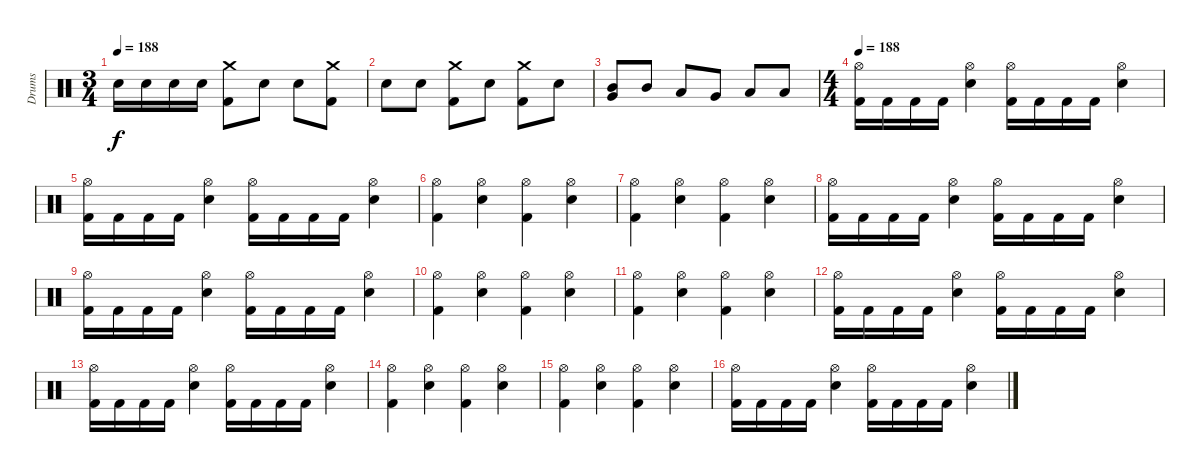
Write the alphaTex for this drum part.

\track ("Drums" "Drums") {instrument percussion}
\staff {score}
\articulation defaults
\ts (3 4)
\tempo 188
\clef neutral
\ks c "Electric Snare (hit)".16{dy f} "Electric Snare (hit)".16 "Electric Snare (hit)".16 "Electric Snare (hit)".16
("Crash medium (hit)" "Kick (hit) 2").8 "Electric Snare (hit)".8 "Electric Snare (hit)".8 ("Crash medium (hit)" "Kick (hit) 2").8 |
"Electric Snare (hit)".8 "Electric Snare (hit)".8 ("Crash medium (hit)" "Kick (hit) 2").8 "Electric Snare (hit)".8 ("Crash medium (hit)" "Kick (hit) 2").8 "Electric Snare (hit)".8 |
("Very Low Tom (hit)" "Mid Tom (hit)").8 "Mid Tom (hit)".8 "Low Tom (hit)".8 "Very Low Tom (hit)".8 "Low Floor Tom (hit)".8 "Low Floor Tom (hit)".8 |
\ts (4 4)
\tempo 188
("Hi-Hat (open)" "Kick (hit) 2").16 "Kick (hit) 2".16 "Kick (hit) 2".16 "Kick (hit) 2".16 ("Electric Snare (hit)" "Hi-Hat (open)").4 ("Hi-Hat (open)" "Kick (hit) 2").16 "Kick (hit) 2".16 "Kick (hit) 2".16 "Kick (hit) 2".16 ("Electric Snare (hit)" "Hi-Hat (open)").4 |
("Hi-Hat (open)" "Kick (hit) 2").16 "Kick (hit) 2".16 "Kick (hit) 2".16 "Kick (hit) 2".16 ("Electric Snare (hit)" "Hi-Hat (open)").4 ("Hi-Hat (open)" "Kick (hit) 2").16 "Kick (hit) 2".16 "Kick (hit) 2".16 "Kick (hit) 2".16 ("Electric Snare (hit)" "Hi-Hat (open)").4 |
("Hi-Hat (open)" "Kick (hit) 2").4 ("Electric Snare (hit)" "Hi-Hat (open)").4 ("Hi-Hat (open)" "Kick (hit) 2").4 ("Electric Snare (hit)" "Hi-Hat (open)").4 |
("Hi-Hat (open)" "Kick (hit) 2").4 ("Electric Snare (hit)" "Hi-Hat (open)").4 ("Hi-Hat (open)" "Kick (hit) 2").4 ("Electric Snare (hit)" "Hi-Hat (open)").4 |
("Hi-Hat (open)" "Kick (hit) 2").16 "Kick (hit) 2".16 "Kick (hit) 2".16 "Kick (hit) 2".16 ("Electric Snare (hit)" "Hi-Hat (open)").4 ("Hi-Hat (open)" "Kick (hit) 2").16 "Kick (hit) 2".16 "Kick (hit) 2".16 "Kick (hit) 2".16 ("Electric Snare (hit)" "Hi-Hat (open)").4 |
("Hi-Hat (open)" "Kick (hit) 2").16 "Kick (hit) 2".16 "Kick (hit) 2".16 "Kick (hit) 2".16 ("Electric Snare (hit)" "Hi-Hat (open)").4 ("Hi-Hat (open)" "Kick (hit) 2").16 "Kick (hit) 2".16 "Kick (hit) 2".16 "Kick (hit) 2".16 ("Electric Snare (hit)" "Hi-Hat (open)").4 |
("Hi-Hat (open)" "Kick (hit) 2").4 ("Electric Snare (hit)" "Hi-Hat (open)").4 ("Hi-Hat (open)" "Kick (hit) 2").4 ("Electric Snare (hit)" "Hi-Hat (open)").4 |
("Hi-Hat (open)" "Kick (hit) 2").4 ("Electric Snare (hit)" "Hi-Hat (open)").4 ("Hi-Hat (open)" "Kick (hit) 2").4 ("Electric Snare (hit)" "Hi-Hat (open)").4 |
("Hi-Hat (open)" "Kick (hit) 2").16 "Kick (hit) 2".16 "Kick (hit) 2".16 "Kick (hit) 2".16 ("Electric Snare (hit)" "Hi-Hat (open)").4 ("Hi-Hat (open)" "Kick (hit) 2").16 "Kick (hit) 2".16 "Kick (hit) 2".16 "Kick (hit) 2".16 ("Electric Snare (hit)" "Hi-Hat (open)").4 |
("Hi-Hat (open)" "Kick (hit) 2").16 "Kick (hit) 2".16 "Kick (hit) 2".16 "Kick (hit) 2".16 ("Electric Snare (hit)" "Hi-Hat (open)").4 ("Hi-Hat (open)" "Kick (hit) 2").16 "Kick (hit) 2".16 "Kick (hit) 2".16 "Kick (hit) 2".16 ("Electric Snare (hit)" "Hi-Hat (open)").4 |
("Hi-Hat (open)" "Kick (hit) 2").4 ("Electric Snare (hit)" "Hi-Hat (open)").4 ("Hi-Hat (open)" "Kick (hit) 2").4 ("Electric Snare (hit)" "Hi-Hat (open)").4 |
("Hi-Hat (open)" "Kick (hit) 2").4 ("Electric Snare (hit)" "Hi-Hat (open)").4 ("Hi-Hat (open)" "Kick (hit) 2").4 ("Electric Snare (hit)" "Hi-Hat (open)").4 |
("Hi-Hat (open)" "Kick (hit) 2").16 "Kick (hit) 2".16 "Kick (hit) 2".16 "Kick (hit) 2".16 ("Electric Snare (hit)" "Hi-Hat (open)").4 ("Hi-Hat (open)" "Kick (hit) 2").16 "Kick (hit) 2".16 "Kick (hit) 2".16 "Kick (hit) 2".16 ("Electric Snare (hit)" "Hi-Hat (open)").4
